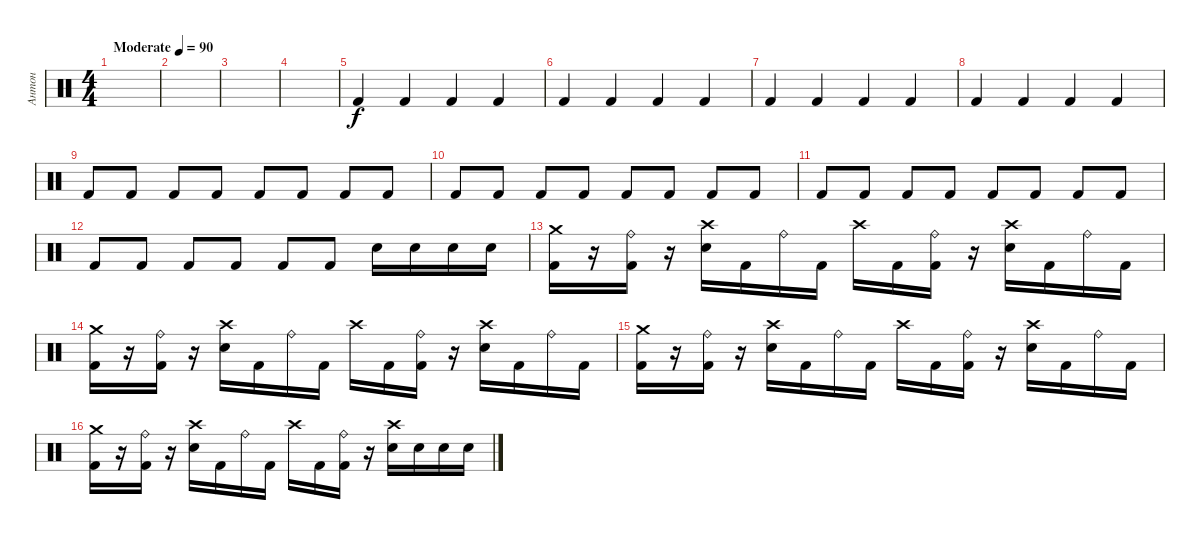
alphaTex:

\track ("Антон" "Антон") {instrument percussion}
\staff {score}
\articulation defaults
\ts (4 4)
\tempo (90 "Moderate")
\clef neutral
\ks c
|
|
|
|
"Kick (hit) 2".4 "Kick (hit) 2".4 "Kick (hit) 2".4 "Kick (hit) 2".4 |
"Kick (hit) 2".4 "Kick (hit) 2".4 "Kick (hit) 2".4 "Kick (hit) 2".4 |
"Kick (hit) 2".4 "Kick (hit) 2".4 "Kick (hit) 2".4 "Kick (hit) 2".4 |
"Kick (hit) 2".4 "Kick (hit) 2".4 "Kick (hit) 2".4 "Kick (hit) 2".4 |
"Kick (hit) 2".8 "Kick (hit) 2".8 "Kick (hit) 2".8 "Kick (hit) 2".8 "Kick (hit) 2".8 "Kick (hit) 2".8 "Kick (hit) 2".8 "Kick (hit) 2".8 |
"Kick (hit) 2".8 "Kick (hit) 2".8 "Kick (hit) 2".8 "Kick (hit) 2".8 "Kick (hit) 2".8 "Kick (hit) 2".8 "Kick (hit) 2".8 "Kick (hit) 2".8 |
"Kick (hit) 2".8 "Kick (hit) 2".8 "Kick (hit) 2".8 "Kick (hit) 2".8 "Kick (hit) 2".8 "Kick (hit) 2".8 "Kick (hit) 2".8 "Kick (hit) 2".8 |
"Kick (hit) 2".8 "Kick (hit) 2".8 "Kick (hit) 2".8 "Kick (hit) 2".8 "Kick (hit) 2".8 "Kick (hit) 2".8 "Electric Snare (hit)".16 "Electric Snare (hit)".16 "Electric Snare (hit)".16 "Electric Snare (hit)".16 |
("Crash medium (hit)" "Kick (hit) 2").16 r.16 ("Ride (bell)" "Kick (hit) 2").16 r.16 ("Crash high (hit)" "Electric Snare (hit)").16 "Kick (hit) 2".16 "Ride (bell)".16 "Kick (hit) 2".16 "Crash high (hit)".16 "Kick (hit) 2".16 ("Ride (bell)" "Kick (hit) 2").16 r.16 ("Crash high (hit)" "Electric Snare (hit)").16 "Kick (hit) 2".16 "Ride (bell)".16 "Kick (hit) 2".16 |
("Crash medium (hit)" "Kick (hit) 2").16 r.16 ("Ride (bell)" "Kick (hit) 2").16 r.16 ("Crash high (hit)" "Electric Snare (hit)").16 "Kick (hit) 2".16 "Ride (bell)".16 "Kick (hit) 2".16 "Crash high (hit)".16 "Kick (hit) 2".16 ("Ride (bell)" "Kick (hit) 2").16 r.16 ("Crash high (hit)" "Electric Snare (hit)").16 "Kick (hit) 2".16 "Ride (bell)".16 "Kick (hit) 2".16 |
("Crash medium (hit)" "Kick (hit) 2").16 r.16 ("Ride (bell)" "Kick (hit) 2").16 r.16 ("Crash high (hit)" "Electric Snare (hit)").16 "Kick (hit) 2".16 "Ride (bell)".16 "Kick (hit) 2".16 "Crash high (hit)".16 "Kick (hit) 2".16 ("Ride (bell)" "Kick (hit) 2").16 r.16 ("Crash high (hit)" "Electric Snare (hit)").16 "Kick (hit) 2".16 "Ride (bell)".16 "Kick (hit) 2".16 |
("Crash medium (hit)" "Kick (hit) 2").16 r.16 ("Ride (bell)" "Kick (hit) 2").16 r.16 ("Crash high (hit)" "Electric Snare (hit)").16 "Kick (hit) 2".16 "Ride (bell)".16 "Kick (hit) 2".16 "Crash high (hit)".16 "Kick (hit) 2".16 ("Ride (bell)" "Kick (hit) 2").16 r.16 ("Crash high (hit)" "Electric Snare (hit)").16 "Electric Snare (hit)".16 "Electric Snare (hit)".16 "Electric Snare (hit)".16
